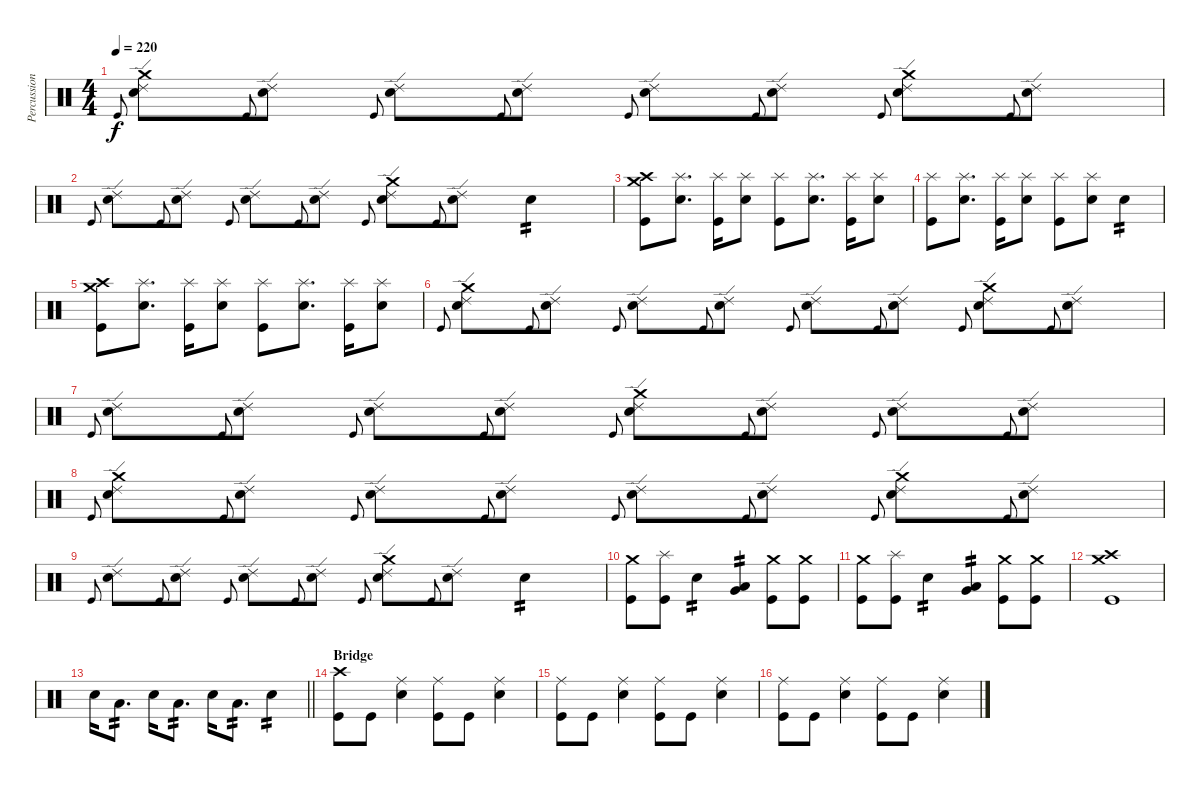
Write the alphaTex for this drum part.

\track ("Percussion" "Percussion") {instrument percussion}
\staff {score}
\articulation defaults
\ts (4 4)
\tempo 220
\clef neutral
\ks c "Kick (hit)".8{gr onbeat dy f}
("Crash medium (hit)" "Ride (edge) 2" "Snare (hit) 2").8 "Kick (hit)".8{gr onbeat} ("Ride (edge) 2" "Snare (hit) 2").8 "Kick (hit)".8{gr onbeat} ("Ride (edge) 2" "Snare (hit) 2").8 "Kick (hit)".8{gr onbeat} ("Ride (edge) 2" "Snare (hit) 2").8 "Kick (hit)".8{gr onbeat} ("Ride (edge) 2" "Snare (hit) 2").8 "Kick (hit)".8{gr onbeat} ("Ride (edge) 2" "Snare (hit) 2").8 "Kick (hit)".8{gr onbeat} ("Crash medium (hit)" "Ride (edge) 2" "Snare (hit) 2").8 "Kick (hit)".8{gr onbeat} ("Ride (edge) 2" "Snare (hit) 2").8 |
"Kick (hit)".8{gr onbeat} ("Ride (edge) 2" "Snare (hit) 2").8 "Kick (hit)".8{gr onbeat} ("Ride (edge) 2" "Snare (hit) 2").8 "Kick (hit)".8{gr onbeat} ("Ride (edge) 2" "Snare (hit) 2").8 "Kick (hit)".8{gr onbeat} ("Ride (edge) 2" "Snare (hit) 2").8 "Kick (hit)".8{gr onbeat} ("Crash medium (hit)" "Ride (edge) 2" "Snare (hit) 2").8 "Kick (hit)".8{gr onbeat} ("Ride (edge) 2" "Snare (hit) 2").8 "Snare (hit) 2".4{tp 2} |
("Crash medium (hit)" "Crash high (hit)" "Kick (hit)").8 ("Splash (hit)" "Snare (hit) 2").8{d} ("Splash (hit)" "Kick (hit)").16 ("Splash (hit)" "Snare (hit) 2").8 ("Splash (hit)" "Kick (hit)").8 ("Splash (hit)" "Snare (hit) 2").8{d} ("Splash (hit)" "Kick (hit)").16 ("Splash (hit)" "Snare (hit) 2").8 |
("Splash (hit)" "Kick (hit)").8 ("Splash (hit)" "Snare (hit) 2").8{d} ("Splash (hit)" "Kick (hit)").16 ("Splash (hit)" "Snare (hit) 2").8 ("Splash (hit)" "Kick (hit)").8 ("Splash (hit)" "Snare (hit) 2").8 "Snare (hit) 2".4{tp 2} |
("Crash high (hit)" "Crash medium (hit)" "Kick (hit)").8 ("Splash (hit)" "Snare (hit) 2").8{d} ("Splash (hit)" "Kick (hit)").16 ("Splash (hit)" "Snare (hit) 2").8 ("Splash (hit)" "Kick (hit)").8 ("Splash (hit)" "Snare (hit) 2").8{d} ("Splash (hit)" "Kick (hit)").16 ("Splash (hit)" "Snare (hit) 2").8 |
"Kick (hit)".8{gr onbeat} ("Crash medium (hit)" "Ride (edge) 2" "Snare (hit) 2").8 "Kick (hit)".8{gr onbeat} ("Ride (edge) 2" "Snare (hit) 2").8 "Kick (hit)".8{gr onbeat} ("Ride (edge) 2" "Snare (hit) 2").8 "Kick (hit)".8{gr onbeat} ("Ride (edge) 2" "Snare (hit) 2").8 "Kick (hit)".8{gr onbeat} ("Ride (edge) 2" "Snare (hit) 2").8 "Kick (hit)".8{gr onbeat} ("Ride (edge) 2" "Snare (hit) 2").8 "Kick (hit)".8{gr onbeat} ("Crash medium (hit)" "Ride (edge) 2" "Snare (hit) 2").8 "Kick (hit)".8{gr onbeat} ("Ride (edge) 2" "Snare (hit) 2").8 |
"Kick (hit)".8{gr onbeat} ("Ride (edge) 2" "Snare (hit) 2").8 "Kick (hit)".8{gr onbeat} ("Ride (edge) 2" "Snare (hit) 2").8 "Kick (hit)".8{gr onbeat} ("Ride (edge) 2" "Snare (hit) 2").8 "Kick (hit)".8{gr onbeat} ("Ride (edge) 2" "Snare (hit) 2").8 "Kick (hit)".8{gr onbeat} ("Crash medium (hit)" "Ride (edge) 2" "Snare (hit) 2").8 "Kick (hit)".8{gr onbeat} ("Ride (edge) 2" "Snare (hit) 2").8 "Kick (hit)".8{gr onbeat} ("Ride (edge) 2" "Snare (hit) 2").8 "Kick (hit)".8{gr onbeat} ("Ride (edge) 2" "Snare (hit) 2").8 |
"Kick (hit)".8{gr onbeat} ("Crash medium (hit)" "Ride (edge) 2" "Snare (hit) 2").8 "Kick (hit)".8{gr onbeat} ("Ride (edge) 2" "Snare (hit) 2").8 "Kick (hit)".8{gr onbeat} ("Ride (edge) 2" "Snare (hit) 2").8 "Kick (hit)".8{gr onbeat} ("Ride (edge) 2" "Snare (hit) 2").8 "Kick (hit)".8{gr onbeat} ("Ride (edge) 2" "Snare (hit) 2").8 "Kick (hit)".8{gr onbeat} ("Ride (edge) 2" "Snare (hit) 2").8 "Kick (hit)".8{gr onbeat} ("Crash medium (hit)" "Ride (edge) 2" "Snare (hit) 2").8 "Kick (hit)".8{gr onbeat} ("Ride (edge) 2" "Snare (hit) 2").8 |
"Kick (hit)".8{gr onbeat} ("Ride (edge) 2" "Snare (hit) 2").8 "Kick (hit)".8{gr onbeat} ("Ride (edge) 2" "Snare (hit) 2").8 "Kick (hit)".8{gr onbeat} ("Ride (edge) 2" "Snare (hit) 2").8 "Kick (hit)".8{gr onbeat} ("Ride (edge) 2" "Snare (hit) 2").8 "Kick (hit)".8{gr onbeat} ("Crash medium (hit)" "Ride (edge) 2" "Snare (hit) 2").8 "Kick (hit)".8{gr onbeat} ("Ride (edge) 2" "Snare (hit) 2").8 "Snare (hit) 2".4{tp 2} |
("Crash medium (hit)" "Kick (hit)").8 ("Splash (hit)" "Kick (hit)").8 "Snare (hit) 2".4{tp 2} ("Very Low Tom (hit)" "Low Tom (hit)").4{tp 2} ("Crash medium (hit)" "Kick (hit)").8 ("Crash medium (hit)" "Kick (hit)").8 |
("Crash medium (hit)" "Kick (hit)").8 ("Splash (hit)" "Kick (hit)").8 "Snare (hit) 2".4{tp 2} ("Very Low Tom (hit)" "Low Tom (hit)").4{tp 2} ("Crash medium (hit)" "Kick (hit)").8 ("Crash medium (hit)" "Kick (hit)").8 |
("Crash high (hit)" "Crash medium (hit)" "Kick (hit)").1 |
\barLineRight lightlight "Snare (hit) 2".16 "Low Tom (hit)".8{d tp 2} "Snare (hit) 2".16 "Low Tom (hit)".8{d tp 2} "Snare (hit) 2".16 "Low Tom (hit)".8{d tp 2} "Snare (hit) 2".4{tp 2}
|
\section ("" "Bridge")
("Crash high (hit)" "Kick (hit)").8 "Kick (hit)".8 ("Ride (middle)" "Snare (hit) 2").4 ("Ride (middle)" "Kick (hit)").8 "Kick (hit)".8 ("Ride (middle)" "Snare (hit) 2").4 |
("Ride (middle)" "Kick (hit)").8 "Kick (hit)".8 ("Ride (middle)" "Snare (hit) 2").4 ("Ride (middle)" "Kick (hit)").8 "Kick (hit)".8 ("Ride (middle)" "Snare (hit) 2").4 |
("Ride (middle)" "Kick (hit)").8 "Kick (hit)".8 ("Ride (middle)" "Snare (hit) 2").4 ("Ride (middle)" "Kick (hit)").8 "Kick (hit)".8 ("Ride (middle)" "Snare (hit) 2").4
